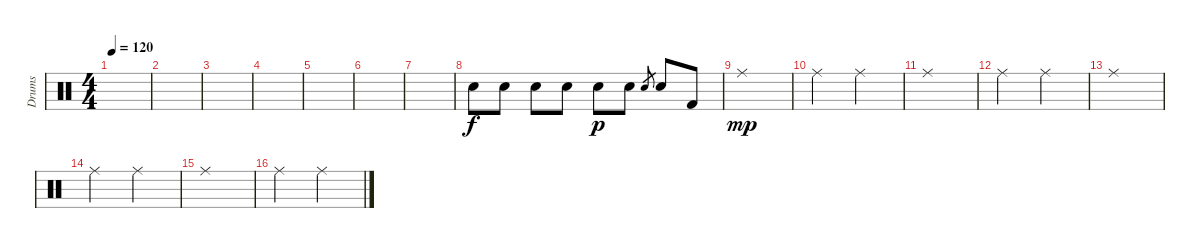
\track ("Drums" "Drums") {instrument percussion}
\staff {score}
\articulation defaults
\ts (4 4)
\tempo 120
\clef neutral
\ks c
|
|
|
|
|
|
|
"Snare (hit) 2".8 "Snare (hit) 2".8 "Snare (hit) 2".8 "Snare (hit) 2".8 "Snare (hit) 2".8{dy p} "Snare (hit) 2".8 "Snare (hit) 2".8{gr} "Snare (hit) 2".8 "Kick (hit) 2".8 |
"Ride (middle)".1{dy mp} |
"Ride (middle)".2 "Ride (middle)".2 |
"Ride (middle)".1 |
"Ride (middle)".2 "Ride (middle)".2 |
"Ride (middle)".1 |
"Ride (middle)".2 "Ride (middle)".2 |
"Ride (middle)".1 |
"Ride (middle)".2 "Ride (middle)".2
